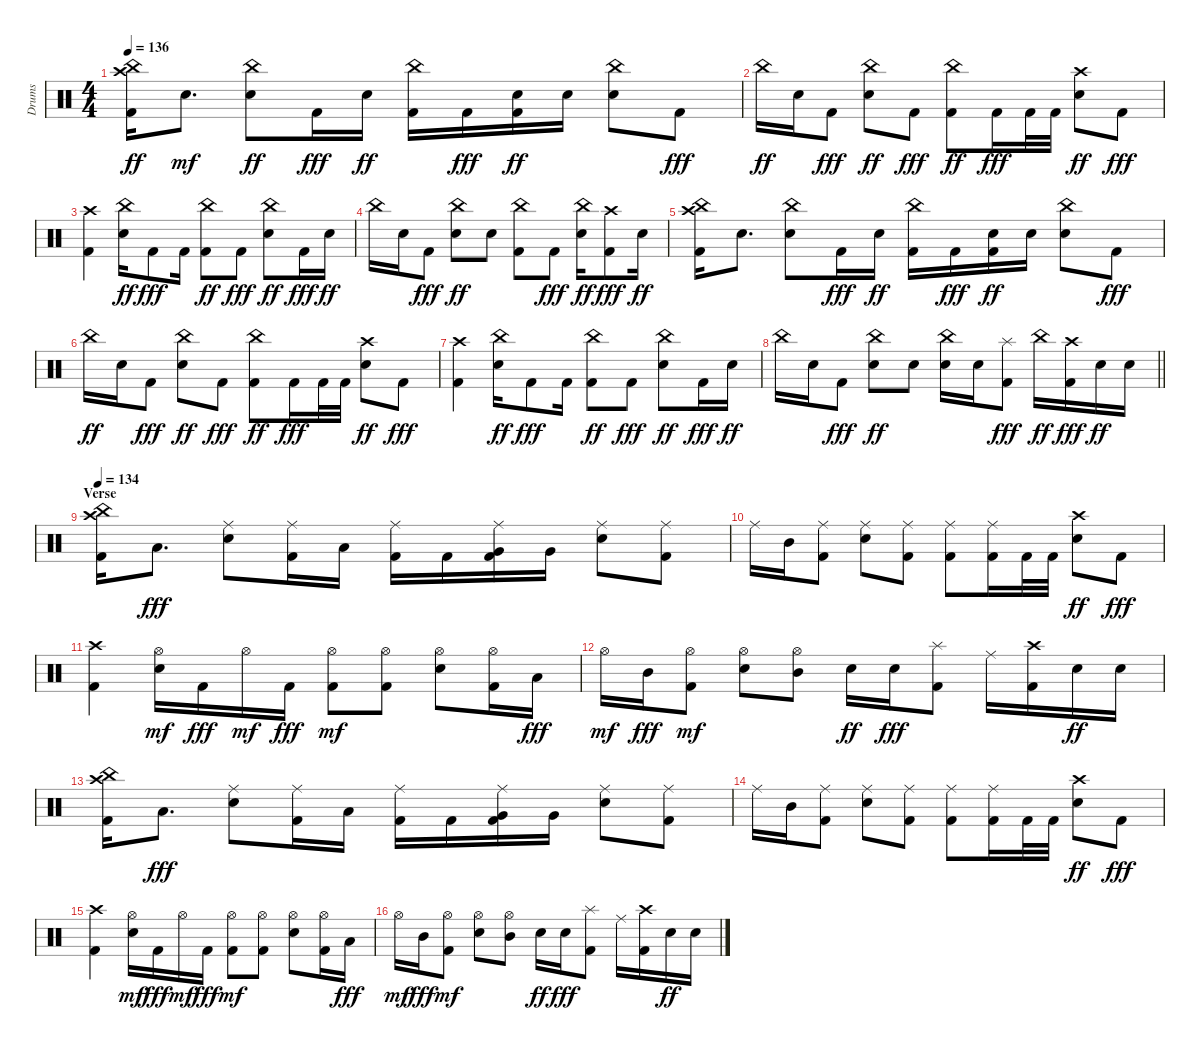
\track ("Drums" "Drums") {instrument percussion}
\staff {score}
\articulation defaults
\ts (4 4)
\tempo 136
\clef neutral
\ks c
("Kick (hit) 2" "Crash high (hit)" "China (hit)").16{dy ff} "Snare (hit) 2".8{d dy mf} ("Snare (hit) 2" "China (hit)").8{dy ff} "Kick (hit) 2".16{dy fff} "Snare (hit) 2".16{dy ff} ("Kick (hit) 2" "China (hit)").16 "Kick (hit) 2".16{dy fff} ("Kick (hit) 2" "Snare (hit) 2").16{dy ff} "Snare (hit) 2".16 ("Snare (hit) 2" "China (hit)").8 "Kick (hit) 2".8{dy fff} |
"China (hit)".16{dy ff} "Snare (hit) 2".16 "Kick (hit) 2".8{dy fff} ("Snare (hit) 2" "China (hit)").8{dy ff} "Kick (hit) 2".8{dy fff} ("Kick (hit) 2" "China (hit)").8{dy ff} "Kick (hit) 2".16{dy fff} "Kick (hit) 2".32 "Kick (hit) 2".32 ("Snare (hit) 2" "Crash high (hit)").8{dy ff} "Kick (hit) 2".8{dy fff} |
("Kick (hit) 2" "Crash high (hit)").4 ("Snare (hit) 2" "China (hit)").16{dy ff} "Kick (hit) 2".8{dy fff} "Kick (hit) 2".16 ("Kick (hit) 2" "China (hit)").8{dy ff} "Kick (hit) 2".8{dy fff} ("Snare (hit) 2" "China (hit)").8{dy ff} "Kick (hit) 2".16{dy fff} "Snare (hit) 2".16{dy ff} |
"China (hit)".16 "Snare (hit) 2".16 "Kick (hit) 2".8{dy fff} ("Snare (hit) 2" "China (hit)").8{dy ff} "Snare (hit) 2".8 ("Kick (hit) 2" "China (hit)").8 "Kick (hit) 2".8{dy fff} ("Snare (hit) 2" "China (hit)").16{dy ff} ("Kick (hit) 2" "Crash high (hit)").8{dy fff} "Snare (hit) 2".16{dy ff} |
("Kick (hit) 2" "Crash high (hit)" "China (hit)").16 "Snare (hit) 2".8{d} ("Snare (hit) 2" "China (hit)").8 "Kick (hit) 2".16{dy fff} "Snare (hit) 2".16{dy ff} ("Kick (hit) 2" "China (hit)").16 "Kick (hit) 2".16{dy fff} ("Kick (hit) 2" "Snare (hit) 2").16{dy ff} "Snare (hit) 2".16 ("Snare (hit) 2" "China (hit)").8 "Kick (hit) 2".8{dy fff} |
"China (hit)".16{dy ff} "Snare (hit) 2".16 "Kick (hit) 2".8{dy fff} ("Snare (hit) 2" "China (hit)").8{dy ff} "Kick (hit) 2".8{dy fff} ("Kick (hit) 2" "China (hit)").8{dy ff} "Kick (hit) 2".16{dy fff} "Kick (hit) 2".32 "Kick (hit) 2".32 ("Snare (hit) 2" "Crash high (hit)").8{dy ff} "Kick (hit) 2".8{dy fff} |
("Kick (hit) 2" "Crash high (hit)").4 ("Snare (hit) 2" "China (hit)").16{dy ff} "Kick (hit) 2".8{dy fff} "Kick (hit) 2".16 ("Kick (hit) 2" "China (hit)").8{dy ff} "Kick (hit) 2".8{dy fff} ("Snare (hit) 2" "China (hit)").8{dy ff} "Kick (hit) 2".16{dy fff} "Snare (hit) 2".16{dy ff} |
\barLineRight lightlight "China (hit)".16 "Snare (hit) 2".16 "Kick (hit) 2".8{dy fff}
("Snare (hit) 2" "China (hit)").8{dy ff} "Snare (hit) 2".8 ("Snare (hit) 2" "China (hit)").16 "Snare (hit) 2".16 ("Kick (hit) 2" "Splash (hit)").8{dy fff} "China (hit)".16{dy ff} ("Kick (hit) 2" "Crash high (hit)").16{dy fff} "Snare (hit) 2".16{dy ff} "Snare (hit) 2".16 |
\section ("" "Verse")
\tempo 134
("Kick (hit) 2" "Crash high (hit)" "China (hit)").16 "Low Tom (hit)".8{d dy fff} ("Snare (hit) 2" "Ride (middle)").8 ("Kick (hit) 2" "Ride (middle)").16 "Low Tom (hit)".16 ("Kick (hit) 2" "Ride (middle)").16 "Kick (hit) 2".16 ("Kick (hit) 2" "Very Low Tom (hit)" "Ride (middle)").16 "Very Low Tom (hit)".16 ("Snare (hit) 2" "Ride (middle)").8 ("Kick (hit) 2" "Ride (middle)").8 |
"Ride (middle)".16 "Mid Tom (hit)".16 ("Kick (hit) 2" "Ride (middle)").8 ("Snare (hit) 2" "Ride (middle)").8 ("Kick (hit) 2" "Ride (middle)").8 ("Kick (hit) 2" "Ride (middle)").8 ("Kick (hit) 2" "Ride (middle)").16 "Kick (hit) 2".32 "Kick (hit) 2".32 ("Snare (hit) 2" "Crash high (hit)").8{dy ff} "Kick (hit) 2".8{dy fff} |
("Kick (hit) 2" "Crash high (hit)").4 ("Snare (hit) 2" "Hi-Hat (open)").16{dy mf} "Kick (hit) 2".16{dy fff} "Hi-Hat (open)".16{dy mf} "Kick (hit) 2".16{dy fff} ("Kick (hit) 2" "Hi-Hat (open)").8{dy mf} ("Kick (hit) 2" "Hi-Hat (open)").8 ("Snare (hit) 2" "Hi-Hat (open)").8 ("Kick (hit) 2" "Hi-Hat (open)").16 "Low Tom (hit)".16{dy fff} |
"Hi-Hat (open)".16{dy mf} "Mid Tom (hit)".16{dy fff} ("Kick (hit) 2" "Hi-Hat (open)").8{dy mf} ("Snare (hit) 2" "Hi-Hat (open)").8 ("Mid Tom (hit)" "Hi-Hat (open)").8 "Snare (hit) 2".16{dy ff} "Snare (hit) 2".16{dy fff} ("Kick (hit) 2" "Splash (hit)").8 "Ride (middle)".16 ("Kick (hit) 2" "Crash high (hit)").16 "Snare (hit) 2".16{dy ff} "Snare (hit) 2".16 |
("Kick (hit) 2" "Crash high (hit)" "China (hit)").16 "Low Tom (hit)".8{d dy fff} ("Snare (hit) 2" "Ride (middle)").8 ("Kick (hit) 2" "Ride (middle)").16 "Low Tom (hit)".16 ("Kick (hit) 2" "Ride (middle)").16 "Kick (hit) 2".16 ("Kick (hit) 2" "Very Low Tom (hit)" "Ride (middle)").16 "Very Low Tom (hit)".16 ("Snare (hit) 2" "Ride (middle)").8 ("Kick (hit) 2" "Ride (middle)").8 |
"Ride (middle)".16 "Mid Tom (hit)".16 ("Kick (hit) 2" "Ride (middle)").8 ("Snare (hit) 2" "Ride (middle)").8 ("Kick (hit) 2" "Ride (middle)").8 ("Kick (hit) 2" "Ride (middle)").8 ("Kick (hit) 2" "Ride (middle)").16 "Kick (hit) 2".32 "Kick (hit) 2".32 ("Snare (hit) 2" "Crash high (hit)").8{dy ff} "Kick (hit) 2".8{dy fff} |
("Kick (hit) 2" "Crash high (hit)").4 ("Snare (hit) 2" "Hi-Hat (open)").16{dy mf} "Kick (hit) 2".16{dy fff} "Hi-Hat (open)".16{dy mf} "Kick (hit) 2".16{dy fff} ("Kick (hit) 2" "Hi-Hat (open)").8{dy mf} ("Kick (hit) 2" "Hi-Hat (open)").8 ("Snare (hit) 2" "Hi-Hat (open)").8 ("Kick (hit) 2" "Hi-Hat (open)").16 "Low Tom (hit)".16{dy fff} |
"Hi-Hat (open)".16{dy mf} "Mid Tom (hit)".16{dy fff} ("Kick (hit) 2" "Hi-Hat (open)").8{dy mf} ("Snare (hit) 2" "Hi-Hat (open)").8 ("Mid Tom (hit)" "Hi-Hat (open)").8 "Snare (hit) 2".16{dy ff} "Snare (hit) 2".16{dy fff} ("Kick (hit) 2" "Splash (hit)").8 "Ride (middle)".16 ("Kick (hit) 2" "Crash high (hit)").16 "Snare (hit) 2".16{dy ff} "Snare (hit) 2".16
